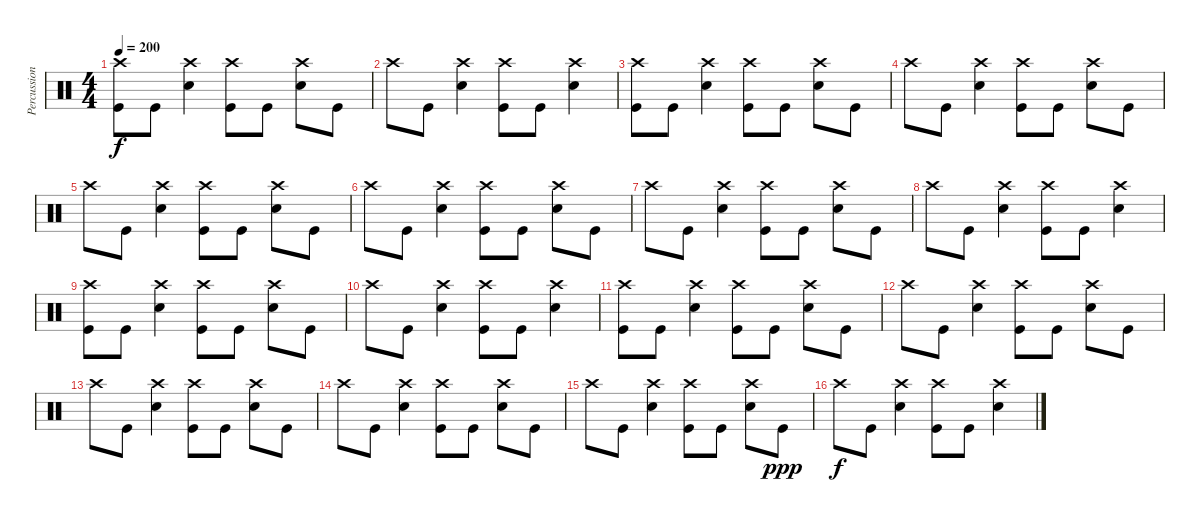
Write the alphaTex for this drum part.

\track ("Percussion" "Percussion") {instrument percussion}
\staff {score}
\articulation defaults
\ts (4 4)
\tempo 200
\clef neutral
\ks c
("Crash high (hit)" "Kick (hit)").8{dy f} "Kick (hit)".8 ("Crash high (hit)" "Snare (hit) 2").4 ("Crash high (hit)" "Kick (hit)").8 "Kick (hit)".8 ("Crash high (hit)" "Snare (hit) 2").8 "Kick (hit)".8 |
"Crash high (hit)".8 "Kick (hit)".8 ("Crash high (hit)" "Snare (hit) 2").4 ("Crash high (hit)" "Kick (hit)").8 "Kick (hit)".8 ("Crash high (hit)" "Snare (hit) 2").4 |
("Crash high (hit)" "Kick (hit)").8 "Kick (hit)".8 ("Crash high (hit)" "Snare (hit) 2").4 ("Crash high (hit)" "Kick (hit)").8 "Kick (hit)".8 ("Crash high (hit)" "Snare (hit) 2").8 "Kick (hit)".8 |
"Crash high (hit)".8 "Kick (hit)".8 ("Crash high (hit)" "Snare (hit) 2").4 ("Crash high (hit)" "Kick (hit)").8 "Kick (hit)".8 ("Crash high (hit)" "Snare (hit) 2").8 "Kick (hit)".8 |
"Crash high (hit)".8 "Kick (hit)".8 ("Crash high (hit)" "Snare (hit) 2").4 ("Crash high (hit)" "Kick (hit)").8 "Kick (hit)".8 ("Crash high (hit)" "Snare (hit) 2").8 "Kick (hit)".8 |
"Crash high (hit)".8 "Kick (hit)".8 ("Crash high (hit)" "Snare (hit) 2").4 ("Crash high (hit)" "Kick (hit)").8 "Kick (hit)".8 ("Crash high (hit)" "Snare (hit) 2").8 "Kick (hit)".8 |
"Crash high (hit)".8 "Kick (hit)".8 ("Crash high (hit)" "Snare (hit) 2").4 ("Crash high (hit)" "Kick (hit)").8 "Kick (hit)".8 ("Crash high (hit)" "Snare (hit) 2").8 "Kick (hit)".8 |
"Crash high (hit)".8 "Kick (hit)".8 ("Crash high (hit)" "Snare (hit) 2").4 ("Crash high (hit)" "Kick (hit)").8 "Kick (hit)".8 ("Crash high (hit)" "Snare (hit) 2").4 |
("Crash high (hit)" "Kick (hit)").8 "Kick (hit)".8 ("Crash high (hit)" "Snare (hit) 2").4 ("Crash high (hit)" "Kick (hit)").8 "Kick (hit)".8 ("Crash high (hit)" "Snare (hit) 2").8 "Kick (hit)".8 |
"Crash high (hit)".8 "Kick (hit)".8 ("Crash high (hit)" "Snare (hit) 2").4 ("Crash high (hit)" "Kick (hit)").8 "Kick (hit)".8 ("Crash high (hit)" "Snare (hit) 2").4 |
("Crash high (hit)" "Kick (hit)").8 "Kick (hit)".8 ("Crash high (hit)" "Snare (hit) 2").4 ("Crash high (hit)" "Kick (hit)").8 "Kick (hit)".8 ("Crash high (hit)" "Snare (hit) 2").8 "Kick (hit)".8 |
"Crash high (hit)".8 "Kick (hit)".8 ("Crash high (hit)" "Snare (hit) 2").4 ("Crash high (hit)" "Kick (hit)").8 "Kick (hit)".8 ("Crash high (hit)" "Snare (hit) 2").8 "Kick (hit)".8 |
"Crash high (hit)".8 "Kick (hit)".8 ("Crash high (hit)" "Snare (hit) 2").4 ("Crash high (hit)" "Kick (hit)").8 "Kick (hit)".8 ("Crash high (hit)" "Snare (hit) 2").8 "Kick (hit)".8 |
"Crash high (hit)".8 "Kick (hit)".8 ("Crash high (hit)" "Snare (hit) 2").4 ("Crash high (hit)" "Kick (hit)").8 "Kick (hit)".8 ("Crash high (hit)" "Snare (hit) 2").8 "Kick (hit)".8 |
"Crash high (hit)".8 "Kick (hit)".8 ("Crash high (hit)" "Snare (hit) 2").4 ("Crash high (hit)" "Kick (hit)").8 "Kick (hit)".8 ("Crash high (hit)" "Snare (hit) 2").8 "Kick (hit)".8{dy ppp} |
"Crash high (hit)".8{dy f} "Kick (hit)".8 ("Crash high (hit)" "Snare (hit) 2").4 ("Crash high (hit)" "Kick (hit)").8 "Kick (hit)".8 ("Crash high (hit)" "Snare (hit) 2").4
